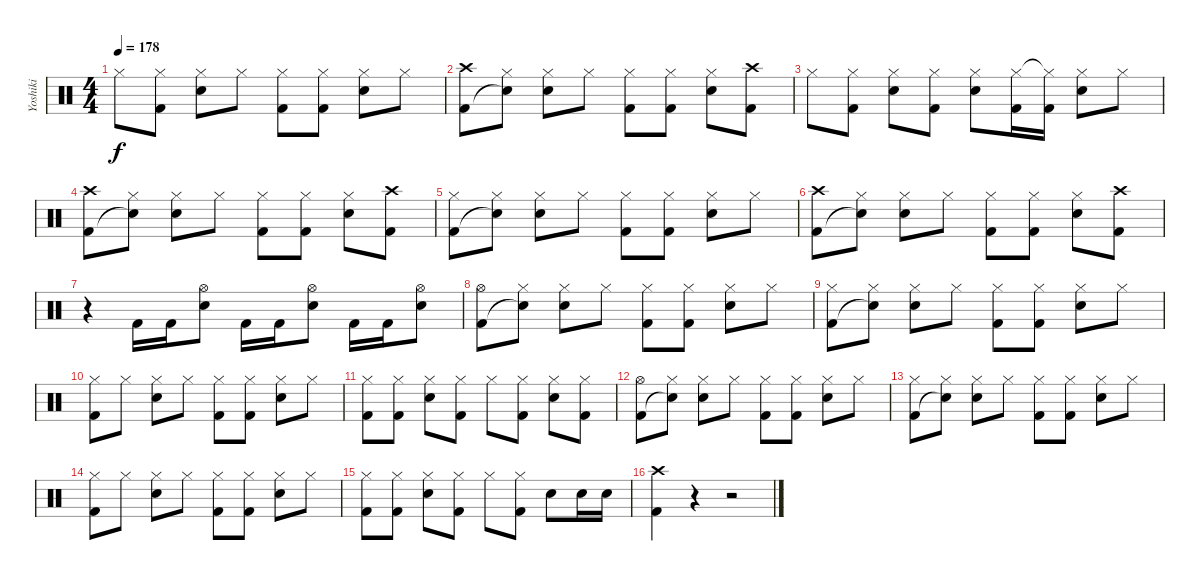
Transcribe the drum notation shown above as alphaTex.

\track ("Yoshiki" "Yoshiki") {instrument percussion}
\staff {score}
\articulation defaults
\ts (4 4)
\tempo 178
\clef neutral
\ks c "Hi-Hat (closed)".8{dy f}
("Hi-Hat (closed)" "Kick (hit) 2").8 ("Hi-Hat (closed)" "Snare (hit) 2").8 "Hi-Hat (closed)".8 ("Hi-Hat (closed)" "Kick (hit) 2").8 ("Hi-Hat (closed)" "Kick (hit) 2").8 ("Hi-Hat (closed)" "Snare (hit) 2").8 "Hi-Hat (closed)".8 |
("Crash high (hit)" "Kick (hit) 2").8 ("Hi-Hat (closed)" "Snare (hit)"{t}).8 ("Hi-Hat (closed)" "Snare (hit) 2").8 "Hi-Hat (closed)".8 ("Hi-Hat (closed)" "Kick (hit) 2").8 ("Hi-Hat (closed)" "Kick (hit) 2").8 ("Hi-Hat (closed)" "Snare (hit) 2").8 ("Crash high (hit)" "Kick (hit) 2").8 |
"Hi-Hat (closed)".8 ("Hi-Hat (closed)" "Kick (hit) 2").8 ("Hi-Hat (closed)" "Snare (hit) 2").8 ("Hi-Hat (closed)" "Kick (hit) 2").8 ("Hi-Hat (closed)" "Snare (hit) 2").8 ("Hi-Hat (closed)" "Kick (hit) 2").16 ("Hi-Hat (closed)"{t} "Kick (hit) 2").16 ("Hi-Hat (closed)" "Snare (hit) 2").8 "Hi-Hat (closed)".8 |
("Crash high (hit)" "Kick (hit) 2").8 ("Hi-Hat (closed)" "Snare (hit)"{t}).8 ("Hi-Hat (closed)" "Snare (hit) 2").8 "Hi-Hat (closed)".8 ("Hi-Hat (closed)" "Kick (hit) 2").8 ("Hi-Hat (closed)" "Kick (hit) 2").8 ("Hi-Hat (closed)" "Snare (hit) 2").8 ("Crash high (hit)" "Kick (hit) 2").8 |
("Hi-Hat (closed)" "Kick (hit) 2").8 ("Hi-Hat (closed)" "Snare (hit)"{t}).8 ("Hi-Hat (closed)" "Snare (hit) 2").8 "Hi-Hat (closed)".8 ("Hi-Hat (closed)" "Kick (hit) 2").8 ("Hi-Hat (closed)" "Kick (hit) 2").8 ("Hi-Hat (closed)" "Snare (hit) 2").8 "Hi-Hat (closed)".8 |
("Crash high (hit)" "Kick (hit) 2").8 ("Hi-Hat (closed)" "Snare (hit)"{t}).8 ("Hi-Hat (closed)" "Snare (hit) 2").8 "Hi-Hat (closed)".8 ("Hi-Hat (closed)" "Kick (hit) 2").8 ("Hi-Hat (closed)" "Kick (hit) 2").8 ("Hi-Hat (closed)" "Snare (hit) 2").8 ("Crash high (hit)" "Kick (hit) 2").8 |
r.4 "Kick (hit) 2".16 "Kick (hit) 2".16 ("Hi-Hat (open)" "Snare (hit) 2").8 "Kick (hit) 2".16 "Kick (hit) 2".16 ("Hi-Hat (open)" "Snare (hit) 2").8 "Kick (hit) 2".16 "Kick (hit) 2".16 ("Hi-Hat (open)" "Snare (hit) 2").8 |
("Hi-Hat (open)" "Kick (hit) 2").8 ("Hi-Hat (closed)" "Snare (hit)"{t}).8 ("Hi-Hat (closed)" "Snare (hit) 2").8 "Hi-Hat (closed)".8 ("Hi-Hat (closed)" "Kick (hit) 2").8 ("Hi-Hat (closed)" "Kick (hit) 2").8 ("Hi-Hat (closed)" "Snare (hit) 2").8 "Hi-Hat (closed)".8 |
("Hi-Hat (closed)" "Kick (hit) 2").8 ("Hi-Hat (closed)" "Snare (hit)"{t}).8 ("Hi-Hat (closed)" "Snare (hit) 2").8 "Hi-Hat (closed)".8 ("Hi-Hat (closed)" "Kick (hit) 2").8 ("Hi-Hat (closed)" "Kick (hit) 2").8 ("Hi-Hat (closed)" "Snare (hit) 2").8 "Hi-Hat (closed)".8 |
("Hi-Hat (closed)" "Kick (hit) 2").8 "Hi-Hat (closed)".8 ("Hi-Hat (closed)" "Snare (hit) 2").8 "Hi-Hat (closed)".8 ("Hi-Hat (closed)" "Kick (hit) 2").8 ("Hi-Hat (closed)" "Kick (hit) 2").8 ("Hi-Hat (closed)" "Snare (hit) 2").8 "Hi-Hat (closed)".8 |
("Hi-Hat (closed)" "Kick (hit) 2").8 ("Hi-Hat (closed)" "Kick (hit) 2").8 ("Hi-Hat (closed)" "Snare (hit) 2").8 ("Hi-Hat (closed)" "Kick (hit) 2").8 "Hi-Hat (closed)".8 ("Hi-Hat (closed)" "Kick (hit) 2").8 ("Hi-Hat (closed)" "Snare (hit) 2").8 ("Hi-Hat (closed)" "Kick (hit) 2").8 |
("Hi-Hat (open)" "Kick (hit) 2").8 ("Hi-Hat (closed)" "Snare (hit)"{t}).8 ("Hi-Hat (closed)" "Snare (hit) 2").8 "Hi-Hat (closed)".8 ("Hi-Hat (closed)" "Kick (hit) 2").8 ("Hi-Hat (closed)" "Kick (hit) 2").8 ("Hi-Hat (closed)" "Snare (hit) 2").8 "Hi-Hat (closed)".8 |
("Hi-Hat (closed)" "Kick (hit) 2").8 ("Hi-Hat (closed)" "Snare (hit)"{t}).8 ("Hi-Hat (closed)" "Snare (hit) 2").8 "Hi-Hat (closed)".8 ("Hi-Hat (closed)" "Kick (hit) 2").8 ("Hi-Hat (closed)" "Kick (hit) 2").8 ("Hi-Hat (closed)" "Snare (hit) 2").8 "Hi-Hat (closed)".8 |
("Hi-Hat (closed)" "Kick (hit) 2").8 "Hi-Hat (closed)".8 ("Hi-Hat (closed)" "Snare (hit) 2").8 "Hi-Hat (closed)".8 ("Hi-Hat (closed)" "Kick (hit) 2").8 ("Hi-Hat (closed)" "Kick (hit) 2").8 ("Hi-Hat (closed)" "Snare (hit) 2").8 "Hi-Hat (closed)".8 |
("Hi-Hat (closed)" "Kick (hit) 2").8 ("Hi-Hat (closed)" "Kick (hit) 2").8 ("Hi-Hat (closed)" "Snare (hit) 2").8 ("Hi-Hat (closed)" "Kick (hit) 2").8 "Hi-Hat (closed)".8 ("Hi-Hat (closed)" "Kick (hit) 2").8 "Snare (hit) 2".8 "Snare (hit) 2".16 "Snare (hit) 2".16 |
\section ("" "")
("Crash high (hit)" "Kick (hit) 2").4 r.4 r.2
